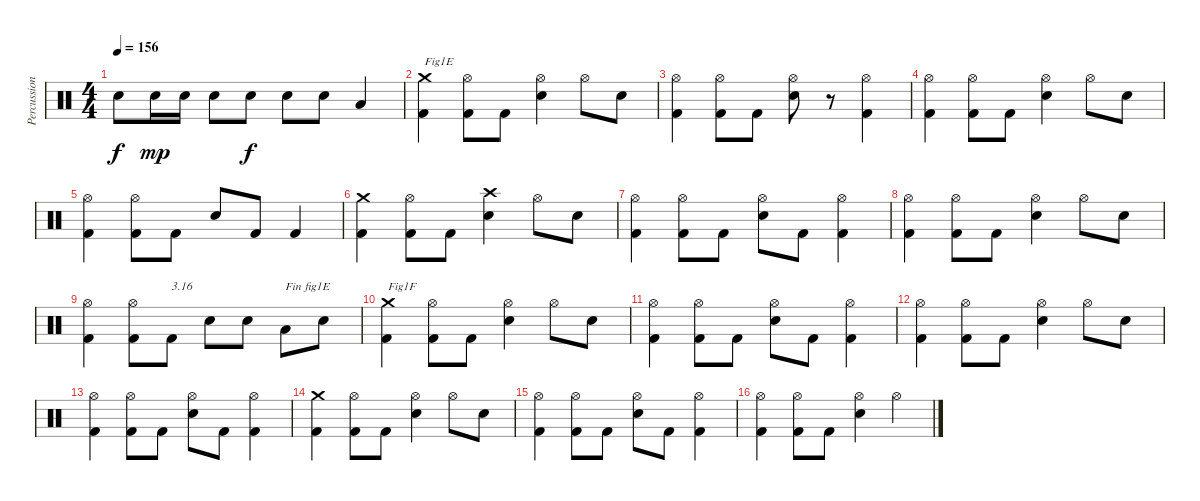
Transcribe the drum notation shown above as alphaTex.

\track ("Percussions" "Percussion") {instrument percussion}
\staff {score}
\articulation defaults
\ts (4 4)
\tempo 156
\clef neutral
\ks c "Snare (hit) 2".8{dy f} "Snare (hit) 2".16{dy mp} "Snare (hit) 2".16 "Snare (hit) 2".8 "Snare (hit) 2".8{dy f} "Snare (hit) 2".8 "Snare (hit) 2".8 "Low Tom (hit)".4
|
("Kick (hit) 2" "Crash medium (hit)").4{txt "Fig1E"} ("Kick (hit) 2" "Hi-Hat (open)").8 "Kick (hit) 2".8 ("Electric Snare (hit)" "Hi-Hat (open)").4 "Hi-Hat (open)".8 "Electric Snare (hit)".8 |
("Kick (hit) 2" "Hi-Hat (open)").4 ("Kick (hit) 2" "Hi-Hat (open)").8 "Kick (hit) 2".8 ("Electric Snare (hit)" "Hi-Hat (open)").8 r.8 ("Kick (hit) 2" "Hi-Hat (open)").4 |
("Kick (hit) 2" "Hi-Hat (open)").4 ("Kick (hit) 2" "Hi-Hat (open)").8 "Kick (hit) 2".8 ("Electric Snare (hit)" "Hi-Hat (open)").4 "Hi-Hat (open)".8 "Electric Snare (hit)".8 |
("Kick (hit) 2" "Hi-Hat (open)").4 ("Kick (hit) 2" "Hi-Hat (open)").8 "Kick (hit) 2".8 "Electric Snare (hit)".8 "Kick (hit) 2".8 "Kick (hit) 2".4 |
("Kick (hit) 2" "Crash medium (hit)").4 ("Kick (hit) 2" "Hi-Hat (open)").8 "Kick (hit) 2".8 ("Electric Snare (hit)" "Crash high (hit)").4 "Hi-Hat (open)".8 "Electric Snare (hit)".8 |
("Kick (hit) 2" "Hi-Hat (open)").4 ("Kick (hit) 2" "Hi-Hat (open)").8 "Kick (hit) 2".8 ("Electric Snare (hit)" "Hi-Hat (open)").8 "Kick (hit) 2".8 ("Kick (hit) 2" "Hi-Hat (open)").4 |
("Kick (hit) 2" "Hi-Hat (open)").4 ("Kick (hit) 2" "Hi-Hat (open)").8 "Kick (hit) 2".8 ("Electric Snare (hit)" "Hi-Hat (open)").4 "Hi-Hat (open)".8 "Electric Snare (hit)".8 |
("Kick (hit) 2" "Hi-Hat (open)").4 ("Kick (hit) 2" "Hi-Hat (open)").8 "Kick (hit) 2".8{txt "3.16"} "Electric Snare (hit)".8 "Electric Snare (hit)".8 "Low Tom (hit)".8{txt "Fin fig1E"} "Electric Snare (hit)".8 |
("Kick (hit) 2" "Crash medium (hit)").4{txt "Fig1F"} ("Kick (hit) 2" "Hi-Hat (open)").8 "Kick (hit) 2".8 ("Electric Snare (hit)" "Hi-Hat (open)").4 "Hi-Hat (open)".8 "Electric Snare (hit)".8 |
("Kick (hit) 2" "Hi-Hat (open)").4 ("Kick (hit) 2" "Hi-Hat (open)").8 "Kick (hit) 2".8 ("Electric Snare (hit)" "Hi-Hat (open)").8 "Kick (hit) 2".8 ("Kick (hit) 2" "Hi-Hat (open)").4 |
("Kick (hit) 2" "Hi-Hat (open)").4 ("Kick (hit) 2" "Hi-Hat (open)").8 "Kick (hit) 2".8 ("Electric Snare (hit)" "Hi-Hat (open)").4 "Hi-Hat (open)".8 "Electric Snare (hit)".8 |
("Kick (hit) 2" "Hi-Hat (open)").4 ("Kick (hit) 2" "Hi-Hat (open)").8 "Kick (hit) 2".8 ("Electric Snare (hit)" "Hi-Hat (open)").8 "Kick (hit) 2".8 ("Kick (hit) 2" "Hi-Hat (open)").4 |
("Kick (hit) 2" "Crash medium (hit)").4 ("Kick (hit) 2" "Hi-Hat (open)").8 "Kick (hit) 2".8 ("Electric Snare (hit)" "Hi-Hat (open)").4 "Hi-Hat (open)".8 "Electric Snare (hit)".8 |
("Kick (hit) 2" "Hi-Hat (open)").4 ("Kick (hit) 2" "Hi-Hat (open)").8 "Kick (hit) 2".8 ("Electric Snare (hit)" "Hi-Hat (open)").8 "Kick (hit) 2".8 ("Kick (hit) 2" "Hi-Hat (open)").4 |
("Kick (hit) 2" "Hi-Hat (open)").4 ("Kick (hit) 2" "Hi-Hat (open)").8 "Kick (hit) 2".8 ("Electric Snare (hit)" "Hi-Hat (open)").4 "Hi-Hat (open)".4
